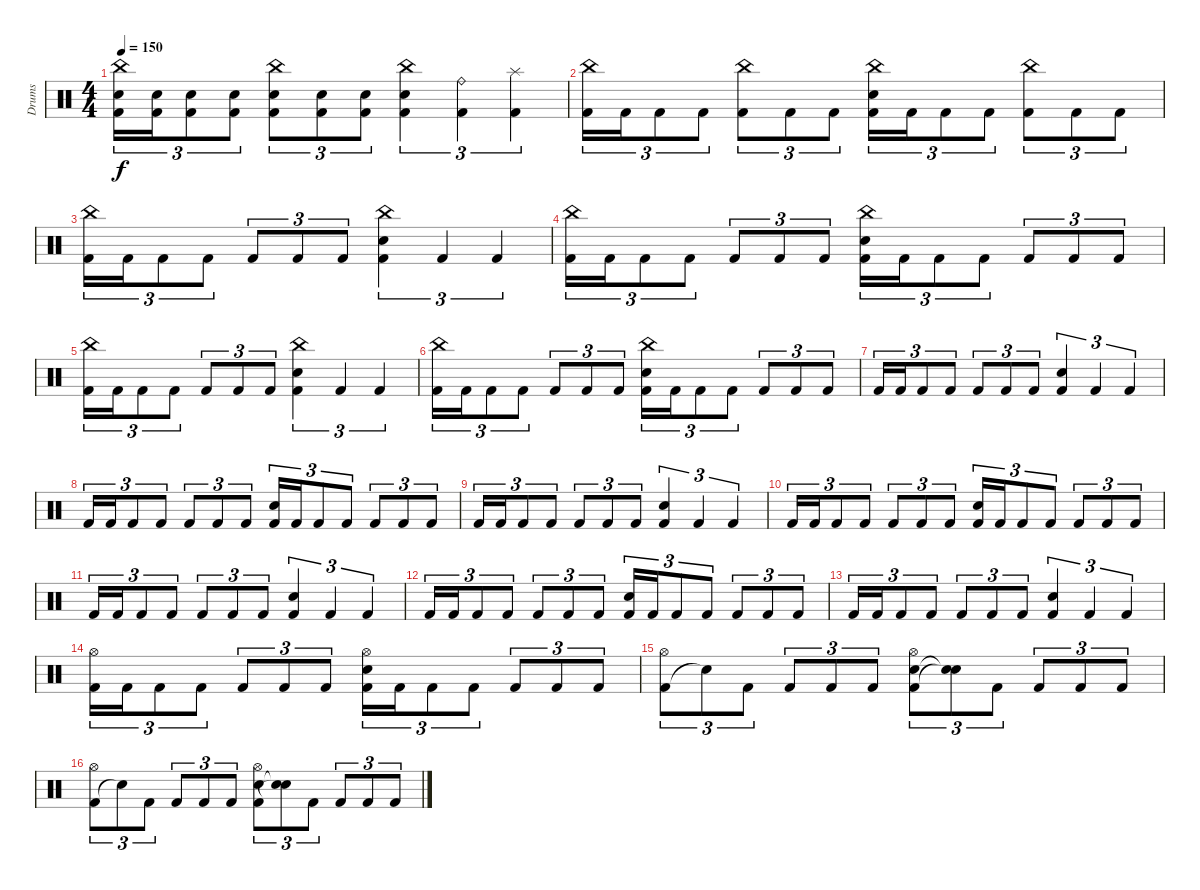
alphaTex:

\track ("Drums" "Drums") {instrument percussion}
\staff {score}
\articulation defaults
\ts (4 4)
\tempo 150
\clef neutral
\ks c
("China (hit)" "Snare (hit) 2" "Kick (hit) 2").16{tu (3 2) dy f} ("Snare (hit) 2" "Kick (hit) 2").16{tu (3 2)} ("Snare (hit) 2" "Kick (hit) 2").8{tu (3 2)} ("Snare (hit) 2" "Kick (hit) 2").8{tu (3 2)} ("China (hit)" "Snare (hit) 2" "Kick (hit) 2").8{tu (3 2)} ("Snare (hit) 2" "Kick (hit) 2").8{tu (3 2)} ("Snare (hit) 2" "Kick (hit) 2").8{tu (3 2)} ("China (hit)" "Snare (hit) 2" "Kick (hit) 2").4{tu (3 2)} ("Kick (hit) 2" "Ride (bell)").4{tu (3 2)} ("Kick (hit) 2" "Splash (hit)").4{tu (3 2)} |
("China (hit)" "Kick (hit) 2").16{tu (3 2)} "Kick (hit) 2".16{tu (3 2)} "Kick (hit) 2".8{tu (3 2)} "Kick (hit) 2".8{tu (3 2)} ("China (hit)" "Kick (hit) 2").8{tu (3 2)} "Kick (hit) 2".8{tu (3 2)} "Kick (hit) 2".8{tu (3 2)} ("China (hit)" "Snare (hit) 2" "Kick (hit) 2").16{tu (3 2)} "Kick (hit) 2".16{tu (3 2)} "Kick (hit) 2".8{tu (3 2)} "Kick (hit) 2".8{tu (3 2)} ("China (hit)" "Kick (hit) 2").8{tu (3 2)} "Kick (hit) 2".8{tu (3 2)} "Kick (hit) 2".8{tu (3 2)} |
("China (hit)" "Kick (hit) 2").16{tu (3 2)} "Kick (hit) 2".16{tu (3 2)} "Kick (hit) 2".8{tu (3 2)} "Kick (hit) 2".8{tu (3 2)} "Kick (hit) 2".8{tu (3 2)} "Kick (hit) 2".8{tu (3 2)} "Kick (hit) 2".8{tu (3 2)} ("China (hit)" "Snare (hit) 2" "Kick (hit) 2").4{tu (3 2)} "Kick (hit) 2".4{tu (3 2)} "Kick (hit) 2".4{tu (3 2)} |
("China (hit)" "Kick (hit) 2").16{tu (3 2)} "Kick (hit) 2".16{tu (3 2)} "Kick (hit) 2".8{tu (3 2)} "Kick (hit) 2".8{tu (3 2)} "Kick (hit) 2".8{tu (3 2)} "Kick (hit) 2".8{tu (3 2)} "Kick (hit) 2".8{tu (3 2)} ("China (hit)" "Snare (hit) 2" "Kick (hit) 2").16{tu (3 2)} "Kick (hit) 2".16{tu (3 2)} "Kick (hit) 2".8{tu (3 2)} "Kick (hit) 2".8{tu (3 2)} "Kick (hit) 2".8{tu (3 2)} "Kick (hit) 2".8{tu (3 2)} "Kick (hit) 2".8{tu (3 2)} |
("China (hit)" "Kick (hit) 2").16{tu (3 2)} "Kick (hit) 2".16{tu (3 2)} "Kick (hit) 2".8{tu (3 2)} "Kick (hit) 2".8{tu (3 2)} "Kick (hit) 2".8{tu (3 2)} "Kick (hit) 2".8{tu (3 2)} "Kick (hit) 2".8{tu (3 2)} ("China (hit)" "Snare (hit) 2" "Kick (hit) 2").4{tu (3 2)} "Kick (hit) 2".4{tu (3 2)} "Kick (hit) 2".4{tu (3 2)} |
("China (hit)" "Kick (hit) 2").16{tu (3 2)} "Kick (hit) 2".16{tu (3 2)} "Kick (hit) 2".8{tu (3 2)} "Kick (hit) 2".8{tu (3 2)} "Kick (hit) 2".8{tu (3 2)} "Kick (hit) 2".8{tu (3 2)} "Kick (hit) 2".8{tu (3 2)} ("China (hit)" "Snare (hit) 2" "Kick (hit) 2").16{tu (3 2)} "Kick (hit) 2".16{tu (3 2)} "Kick (hit) 2".8{tu (3 2)} "Kick (hit) 2".8{tu (3 2)} "Kick (hit) 2".8{tu (3 2)} "Kick (hit) 2".8{tu (3 2)} "Kick (hit) 2".8{tu (3 2)} |
"Kick (hit) 2".16{tu (3 2)} "Kick (hit) 2".16{tu (3 2)} "Kick (hit) 2".8{tu (3 2)} "Kick (hit) 2".8{tu (3 2)} "Kick (hit) 2".8{tu (3 2)} "Kick (hit) 2".8{tu (3 2)} "Kick (hit) 2".8{tu (3 2)} ("Snare (hit) 2" "Kick (hit) 2").4{tu (3 2)} "Kick (hit) 2".4{tu (3 2)} "Kick (hit) 2".4{tu (3 2)} |
"Kick (hit) 2".16{tu (3 2)} "Kick (hit) 2".16{tu (3 2)} "Kick (hit) 2".8{tu (3 2)} "Kick (hit) 2".8{tu (3 2)} "Kick (hit) 2".8{tu (3 2)} "Kick (hit) 2".8{tu (3 2)} "Kick (hit) 2".8{tu (3 2)} ("Snare (hit) 2" "Kick (hit) 2").16{tu (3 2)} "Kick (hit) 2".16{tu (3 2)} "Kick (hit) 2".8{tu (3 2)} "Kick (hit) 2".8{tu (3 2)} "Kick (hit) 2".8{tu (3 2)} "Kick (hit) 2".8{tu (3 2)} "Kick (hit) 2".8{tu (3 2)} |
"Kick (hit) 2".16{tu (3 2)} "Kick (hit) 2".16{tu (3 2)} "Kick (hit) 2".8{tu (3 2)} "Kick (hit) 2".8{tu (3 2)} "Kick (hit) 2".8{tu (3 2)} "Kick (hit) 2".8{tu (3 2)} "Kick (hit) 2".8{tu (3 2)} ("Snare (hit) 2" "Kick (hit) 2").4{tu (3 2)} "Kick (hit) 2".4{tu (3 2)} "Kick (hit) 2".4{tu (3 2)} |
"Kick (hit) 2".16{tu (3 2)} "Kick (hit) 2".16{tu (3 2)} "Kick (hit) 2".8{tu (3 2)} "Kick (hit) 2".8{tu (3 2)} "Kick (hit) 2".8{tu (3 2)} "Kick (hit) 2".8{tu (3 2)} "Kick (hit) 2".8{tu (3 2)} ("Snare (hit) 2" "Kick (hit) 2").16{tu (3 2)} "Kick (hit) 2".16{tu (3 2)} "Kick (hit) 2".8{tu (3 2)} "Kick (hit) 2".8{tu (3 2)} "Kick (hit) 2".8{tu (3 2)} "Kick (hit) 2".8{tu (3 2)} "Kick (hit) 2".8{tu (3 2)} |
"Kick (hit) 2".16{tu (3 2)} "Kick (hit) 2".16{tu (3 2)} "Kick (hit) 2".8{tu (3 2)} "Kick (hit) 2".8{tu (3 2)} "Kick (hit) 2".8{tu (3 2)} "Kick (hit) 2".8{tu (3 2)} "Kick (hit) 2".8{tu (3 2)} ("Snare (hit) 2" "Kick (hit) 2").4{tu (3 2)} "Kick (hit) 2".4{tu (3 2)} "Kick (hit) 2".4{tu (3 2)} |
"Kick (hit) 2".16{tu (3 2)} "Kick (hit) 2".16{tu (3 2)} "Kick (hit) 2".8{tu (3 2)} "Kick (hit) 2".8{tu (3 2)} "Kick (hit) 2".8{tu (3 2)} "Kick (hit) 2".8{tu (3 2)} "Kick (hit) 2".8{tu (3 2)} ("Snare (hit) 2" "Kick (hit) 2").16{tu (3 2)} "Kick (hit) 2".16{tu (3 2)} "Kick (hit) 2".8{tu (3 2)} "Kick (hit) 2".8{tu (3 2)} "Kick (hit) 2".8{tu (3 2)} "Kick (hit) 2".8{tu (3 2)} "Kick (hit) 2".8{tu (3 2)} |
"Kick (hit) 2".16{tu (3 2)} "Kick (hit) 2".16{tu (3 2)} "Kick (hit) 2".8{tu (3 2)} "Kick (hit) 2".8{tu (3 2)} "Kick (hit) 2".8{tu (3 2)} "Kick (hit) 2".8{tu (3 2)} "Kick (hit) 2".8{tu (3 2)} ("Snare (hit) 2" "Kick (hit) 2").4{tu (3 2)} "Kick (hit) 2".4{tu (3 2)} "Kick (hit) 2".4{tu (3 2)} |
("Kick (hit) 2" "Hi-Hat (open)").16{tu (3 2)} "Kick (hit) 2".16{tu (3 2)} "Kick (hit) 2".8{tu (3 2)} "Kick (hit) 2".8{tu (3 2)} "Kick (hit) 2".8{tu (3 2)} "Kick (hit) 2".8{tu (3 2)} "Kick (hit) 2".8{tu (3 2)} ("Snare (hit) 2" "Kick (hit) 2" "Hi-Hat (open)").16{tu (3 2)} "Kick (hit) 2".16{tu (3 2)} "Kick (hit) 2".8{tu (3 2)} "Kick (hit) 2".8{tu (3 2)} "Kick (hit) 2".8{tu (3 2)} "Kick (hit) 2".8{tu (3 2)} "Kick (hit) 2".8{tu (3 2)} |
("Kick (hit) 2" "Hi-Hat (open)").8{tu (3 2)} "Snare (hit)"{t}.8{tu (3 2)} "Kick (hit) 2".8{tu (3 2)} "Kick (hit) 2".8{tu (3 2)} "Kick (hit) 2".8{tu (3 2)} "Kick (hit) 2".8{tu (3 2)} ("Snare (hit) 2" "Kick (hit) 2" "Hi-Hat (open)").8{tu (3 2)} ("Snare (hit)"{t} "Snare (hit)"{t}).8{tu (3 2)} "Kick (hit) 2".8{tu (3 2)} "Kick (hit) 2".8{tu (3 2)} "Kick (hit) 2".8{tu (3 2)} "Kick (hit) 2".8{tu (3 2)} |
("Kick (hit) 2" "Hi-Hat (open)").8{tu (3 2)} "Snare (hit)"{t}.8{tu (3 2)} "Kick (hit) 2".8{tu (3 2)} "Kick (hit) 2".8{tu (3 2)} "Kick (hit) 2".8{tu (3 2)} "Kick (hit) 2".8{tu (3 2)} ("Snare (hit) 2" "Kick (hit) 2" "Hi-Hat (open)").8{tu (3 2)} ("Snare (hit)"{t} "Snare (hit)"{t}).8{tu (3 2)} "Kick (hit) 2".8{tu (3 2)} "Kick (hit) 2".8{tu (3 2)} "Kick (hit) 2".8{tu (3 2)} "Kick (hit) 2".8{tu (3 2)}
